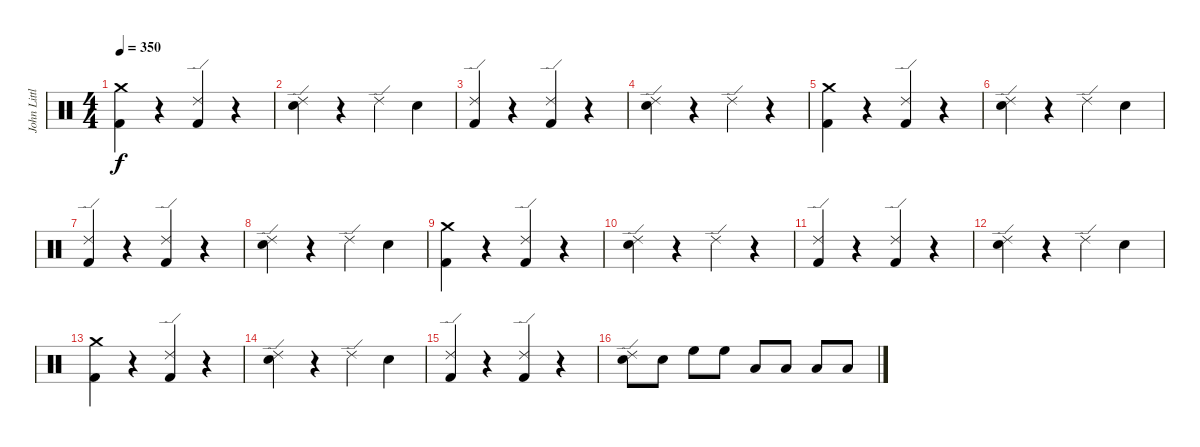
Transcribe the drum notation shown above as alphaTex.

\track ("John Littler - Drums" "John Littl") {instrument percussion}
\staff {score}
\articulation defaults
\ts (4 4)
\tempo 350
\clef neutral
\ks c
("Crash medium (hit)" "Kick (hit) 2").4{dy f} r.4 ("Ride (edge) 2" "Kick (hit) 2").4 r.4 |
("Ride (edge) 2" "Snare (hit) 2").4 r.4 "Ride (edge) 2".4 "Snare (hit) 2".4 |
("Ride (edge) 2" "Kick (hit) 2").4 r.4 ("Ride (edge) 2" "Kick (hit) 2").4 r.4 |
("Ride (edge) 2" "Snare (hit) 2").4 r.4 "Ride (edge) 2".4 r.4 |
("Crash medium (hit)" "Kick (hit) 2").4 r.4 ("Ride (edge) 2" "Kick (hit) 2").4 r.4 |
("Ride (edge) 2" "Snare (hit) 2").4 r.4 "Ride (edge) 2".4 "Snare (hit) 2".4 |
("Ride (edge) 2" "Kick (hit) 2").4 r.4 ("Ride (edge) 2" "Kick (hit) 2").4 r.4 |
("Ride (edge) 2" "Snare (hit) 2").4 r.4 "Ride (edge) 2".4 "Snare (hit) 2".4 |
("Crash medium (hit)" "Kick (hit) 2").4 r.4 ("Ride (edge) 2" "Kick (hit) 2").4 r.4 |
("Ride (edge) 2" "Snare (hit) 2").4 r.4 "Ride (edge) 2".4 r.4 |
("Ride (edge) 2" "Kick (hit) 2").4 r.4 ("Ride (edge) 2" "Kick (hit) 2").4 r.4 |
("Ride (edge) 2" "Snare (hit) 2").4 r.4 "Ride (edge) 2".4 "Snare (hit) 2".4 |
("Crash medium (hit)" "Kick (hit) 2").4 r.4 ("Ride (edge) 2" "Kick (hit) 2").4 r.4 |
("Ride (edge) 2" "Snare (hit) 2").4 r.4 "Ride (edge) 2".4 "Snare (hit) 2".4 |
("Ride (edge) 2" "Kick (hit) 2").4 r.4 ("Ride (edge) 2" "Kick (hit) 2").4 r.4 |
("Ride (edge) 2" "Snare (hit) 2").8 "Snare (hit) 2".8 "High Floor Tom (hit)".8 "High Floor Tom (hit)".8 "Low Tom (hit)".8 "Low Tom (hit)".8 "Low Floor Tom (hit)".8 "Low Floor Tom (hit)".8
